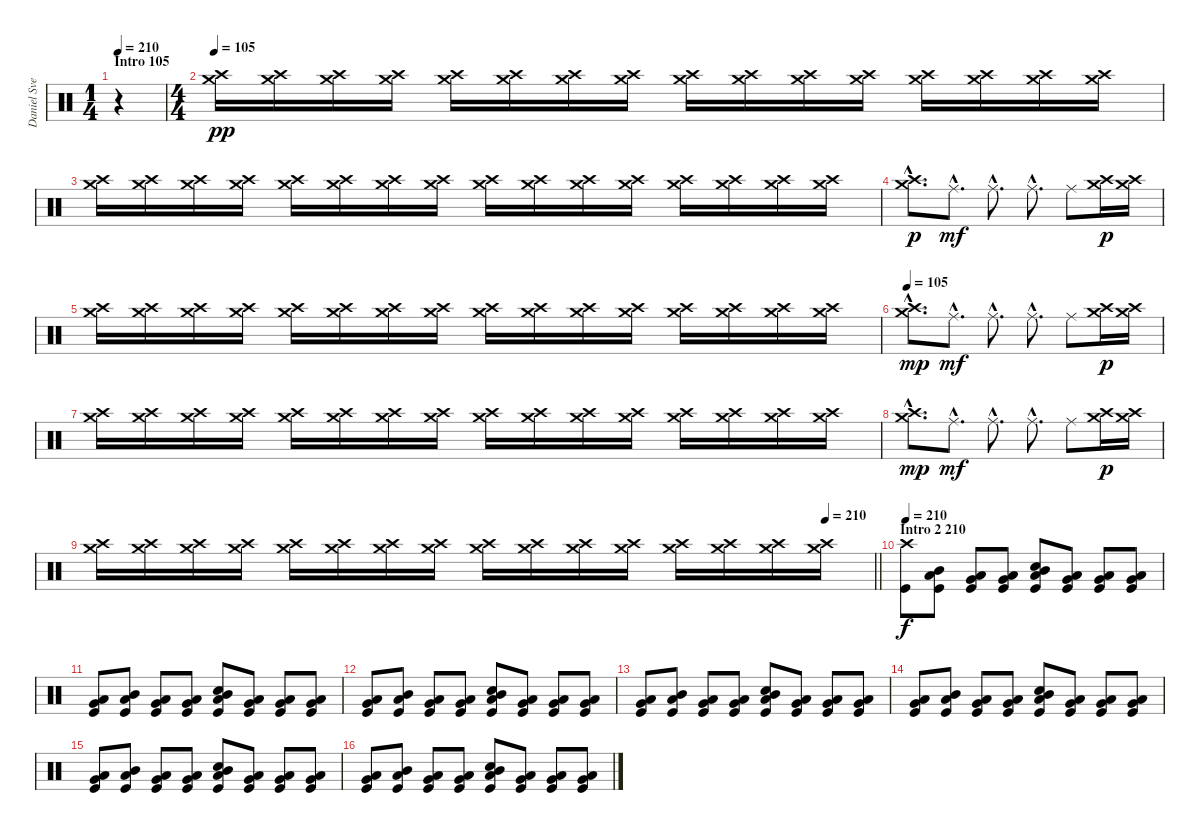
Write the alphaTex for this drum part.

\track ("Daniel Svensson" "Daniel Sve") {instrument percussion}
\staff {score}
\articulation defaults
\ts (1 4)
\section ("" "Intro 105")
\tempo 210
\tempo 105
\tempo 210
\clef neutral
\ks c
r.4{dy pp} |
\ts (4 4)
\tempo 105
("Crash medium (hit)" "Crash high (hit)").16 ("Crash medium (hit)" "Crash high (hit)").16 ("Crash medium (hit)" "Crash high (hit)").16 ("Crash medium (hit)" "Crash high (hit)").16 ("Crash medium (hit)" "Crash high (hit)").16 ("Crash medium (hit)" "Crash high (hit)").16 ("Crash medium (hit)" "Crash high (hit)").16 ("Crash medium (hit)" "Crash high (hit)").16 ("Crash medium (hit)" "Crash high (hit)").16 ("Crash medium (hit)" "Crash high (hit)").16 ("Crash medium (hit)" "Crash high (hit)").16 ("Crash medium (hit)" "Crash high (hit)").16 ("Crash medium (hit)" "Crash high (hit)").16 ("Crash medium (hit)" "Crash high (hit)").16 ("Crash medium (hit)" "Crash high (hit)").16 ("Crash medium (hit)" "Crash high (hit)").16 |
("Crash medium (hit)" "Crash high (hit)").16 ("Crash medium (hit)" "Crash high (hit)").16 ("Crash medium (hit)" "Crash high (hit)").16 ("Crash medium (hit)" "Crash high (hit)").16 ("Crash medium (hit)" "Crash high (hit)").16 ("Crash medium (hit)" "Crash high (hit)").16 ("Crash medium (hit)" "Crash high (hit)").16 ("Crash medium (hit)" "Crash high (hit)").16 ("Crash medium (hit)" "Crash high (hit)").16 ("Crash medium (hit)" "Crash high (hit)").16 ("Crash medium (hit)" "Crash high (hit)").16 ("Crash medium (hit)" "Crash high (hit)").16 ("Crash medium (hit)" "Crash high (hit)").16 ("Crash medium (hit)" "Crash high (hit)").16 ("Crash medium (hit)" "Crash high (hit)").16 ("Crash medium (hit)" "Crash high (hit)").16 |
("Crash medium (hit)"{hac} "Crash high (hit)"{hac}).8{d dy p} "Ride (middle)"{hac}.8{d dy mf} "Ride (middle)"{hac}.8{d} "Ride (middle)"{hac}.8{d} "Ride (middle)".8 ("Crash medium (hit)" "Crash high (hit)").16{dy p} ("Crash medium (hit)" "Crash high (hit)").16 |
("Crash medium (hit)" "Crash high (hit)").16 ("Crash medium (hit)" "Crash high (hit)").16 ("Crash medium (hit)" "Crash high (hit)").16 ("Crash medium (hit)" "Crash high (hit)").16 ("Crash medium (hit)" "Crash high (hit)").16 ("Crash medium (hit)" "Crash high (hit)").16 ("Crash medium (hit)" "Crash high (hit)").16 ("Crash medium (hit)" "Crash high (hit)").16 ("Crash medium (hit)" "Crash high (hit)").16 ("Crash medium (hit)" "Crash high (hit)").16 ("Crash medium (hit)" "Crash high (hit)").16 ("Crash medium (hit)" "Crash high (hit)").16 ("Crash medium (hit)" "Crash high (hit)").16 ("Crash medium (hit)" "Crash high (hit)").16 ("Crash medium (hit)" "Crash high (hit)").16 ("Crash medium (hit)" "Crash high (hit)").16 |
\tempo 105
("Crash medium (hit)"{hac} "Crash high (hit)"{hac}).8{d dy mp} "Ride (middle)"{hac}.8{d dy mf} "Ride (middle)"{hac}.8{d} "Ride (middle)"{hac}.8{d} "Ride (middle)".8 ("Crash medium (hit)" "Crash high (hit)").16{dy p} ("Crash medium (hit)" "Crash high (hit)").16 |
("Crash medium (hit)" "Crash high (hit)").16 ("Crash medium (hit)" "Crash high (hit)").16 ("Crash medium (hit)" "Crash high (hit)").16 ("Crash medium (hit)" "Crash high (hit)").16 ("Crash medium (hit)" "Crash high (hit)").16 ("Crash medium (hit)" "Crash high (hit)").16 ("Crash medium (hit)" "Crash high (hit)").16 ("Crash medium (hit)" "Crash high (hit)").16 ("Crash medium (hit)" "Crash high (hit)").16 ("Crash medium (hit)" "Crash high (hit)").16 ("Crash medium (hit)" "Crash high (hit)").16 ("Crash medium (hit)" "Crash high (hit)").16 ("Crash medium (hit)" "Crash high (hit)").16 ("Crash medium (hit)" "Crash high (hit)").16 ("Crash medium (hit)" "Crash high (hit)").16 ("Crash medium (hit)" "Crash high (hit)").16 |
("Crash medium (hit)"{hac} "Crash high (hit)"{hac}).8{d dy mp} "Ride (middle)"{hac}.8{d dy mf} "Ride (middle)"{hac}.8{d} "Ride (middle)"{hac}.8{d} "Ride (middle)".8 ("Crash medium (hit)" "Crash high (hit)").16{dy p} ("Crash medium (hit)" "Crash high (hit)").16 |
\tempo (210 0.9375)
\barLineRight lightlight
("Crash medium (hit)" "Crash high (hit)").16 ("Crash medium (hit)" "Crash high (hit)").16 ("Crash medium (hit)" "Crash high (hit)").16 ("Crash medium (hit)" "Crash high (hit)").16 ("Crash medium (hit)" "Crash high (hit)").16 ("Crash medium (hit)" "Crash high (hit)").16 ("Crash medium (hit)" "Crash high (hit)").16 ("Crash medium (hit)" "Crash high (hit)").16 ("Crash medium (hit)" "Crash high (hit)").16 ("Crash medium (hit)" "Crash high (hit)").16 ("Crash medium (hit)" "Crash high (hit)").16 ("Crash medium (hit)" "Crash high (hit)").16 ("Crash medium (hit)" "Crash high (hit)").16 ("Crash medium (hit)" "Crash high (hit)").16 ("Crash medium (hit)" "Crash high (hit)").16 ("Crash medium (hit)" "Crash high (hit)").16 |
\section ("" "Intro 2 210")
\tempo 210
("Crash high (hit)" "Kick (hit)").8{dy f} ("Low Tom (hit)" "Mid Tom (hit)" "Kick (hit)").8 ("Very Low Tom (hit)" "Low Tom (hit)" "Kick (hit)").8 ("Low Floor Tom (hit)" "Very Low Tom (hit)" "Kick (hit)").8 ("Low Tom (hit)" "Mid Tom (hit)" "Electric Snare (hit)" "Kick (hit)").8 ("Very Low Tom (hit)" "Low Tom (hit)" "Kick (hit)").8 ("Low Floor Tom (hit)" "Very Low Tom (hit)" "Kick (hit)").8 ("Very Low Tom (hit)" "Low Tom (hit)" "Kick (hit)").8 |
("Very Low Tom (hit)" "Low Tom (hit)" "Kick (hit)").8 ("Low Tom (hit)" "Mid Tom (hit)" "Kick (hit)").8 ("Very Low Tom (hit)" "Low Tom (hit)" "Kick (hit)").8 ("Low Floor Tom (hit)" "Very Low Tom (hit)" "Kick (hit)").8 ("Low Tom (hit)" "Mid Tom (hit)" "Electric Snare (hit)" "Kick (hit)").8 ("Very Low Tom (hit)" "Low Tom (hit)" "Kick (hit)").8 ("Low Floor Tom (hit)" "Very Low Tom (hit)" "Kick (hit)").8 ("Very Low Tom (hit)" "Low Tom (hit)" "Kick (hit)").8 |
("Very Low Tom (hit)" "Low Tom (hit)" "Kick (hit)").8 ("Low Tom (hit)" "Mid Tom (hit)" "Kick (hit)").8 ("Very Low Tom (hit)" "Low Tom (hit)" "Kick (hit)").8 ("Low Floor Tom (hit)" "Very Low Tom (hit)" "Kick (hit)").8 ("Low Tom (hit)" "Mid Tom (hit)" "Electric Snare (hit)" "Kick (hit)").8 ("Very Low Tom (hit)" "Low Tom (hit)" "Kick (hit)").8 ("Low Floor Tom (hit)" "Very Low Tom (hit)" "Kick (hit)").8 ("Very Low Tom (hit)" "Low Tom (hit)" "Kick (hit)").8 |
("Very Low Tom (hit)" "Low Tom (hit)" "Kick (hit)").8 ("Low Tom (hit)" "Mid Tom (hit)" "Kick (hit)").8 ("Very Low Tom (hit)" "Low Tom (hit)" "Kick (hit)").8 ("Low Floor Tom (hit)" "Very Low Tom (hit)" "Kick (hit)").8 ("Low Tom (hit)" "Mid Tom (hit)" "Electric Snare (hit)" "Kick (hit)").8 ("Very Low Tom (hit)" "Low Tom (hit)" "Kick (hit)").8 ("Low Floor Tom (hit)" "Very Low Tom (hit)" "Kick (hit)").8 ("Very Low Tom (hit)" "Low Tom (hit)" "Kick (hit)").8 |
("Very Low Tom (hit)" "Low Tom (hit)" "Kick (hit)").8 ("Low Tom (hit)" "Mid Tom (hit)" "Kick (hit)").8 ("Very Low Tom (hit)" "Low Tom (hit)" "Kick (hit)").8 ("Low Floor Tom (hit)" "Very Low Tom (hit)" "Kick (hit)").8 ("Low Tom (hit)" "Mid Tom (hit)" "Electric Snare (hit)" "Kick (hit)").8 ("Very Low Tom (hit)" "Low Tom (hit)" "Kick (hit)").8 ("Low Floor Tom (hit)" "Very Low Tom (hit)" "Kick (hit)").8 ("Very Low Tom (hit)" "Low Tom (hit)" "Kick (hit)").8 |
("Very Low Tom (hit)" "Low Tom (hit)" "Kick (hit)").8 ("Low Tom (hit)" "Mid Tom (hit)" "Kick (hit)").8 ("Very Low Tom (hit)" "Low Tom (hit)" "Kick (hit)").8 ("Low Floor Tom (hit)" "Very Low Tom (hit)" "Kick (hit)").8 ("Low Tom (hit)" "Mid Tom (hit)" "Electric Snare (hit)" "Kick (hit)").8 ("Very Low Tom (hit)" "Low Tom (hit)" "Kick (hit)").8 ("Low Floor Tom (hit)" "Very Low Tom (hit)" "Kick (hit)").8 ("Very Low Tom (hit)" "Low Tom (hit)" "Kick (hit)").8 |
("Very Low Tom (hit)" "Low Tom (hit)" "Kick (hit)").8 ("Low Tom (hit)" "Mid Tom (hit)" "Kick (hit)").8 ("Very Low Tom (hit)" "Low Tom (hit)" "Kick (hit)").8 ("Low Floor Tom (hit)" "Very Low Tom (hit)" "Kick (hit)").8 ("Low Tom (hit)" "Mid Tom (hit)" "Electric Snare (hit)" "Kick (hit)").8 ("Very Low Tom (hit)" "Low Tom (hit)" "Kick (hit)").8 ("Low Floor Tom (hit)" "Very Low Tom (hit)" "Kick (hit)").8 ("Very Low Tom (hit)" "Low Tom (hit)" "Kick (hit)").8
